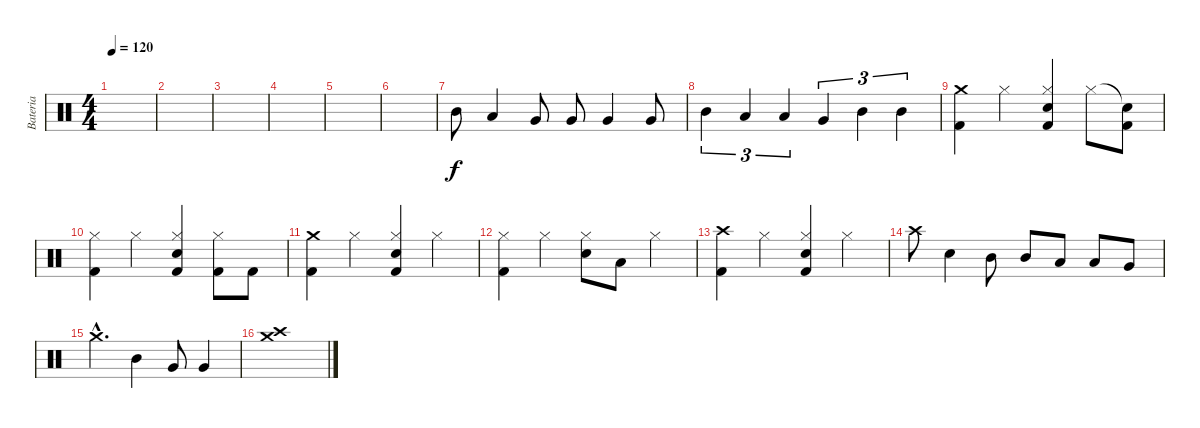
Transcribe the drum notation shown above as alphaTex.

\track ("Bateria" "Bateria") {instrument percussion}
\staff {score}
\articulation defaults
\ts (4 4)
\tempo 120
\clef neutral
\ks c
|
|
|
|
|
|
"Mid Tom (hit)".8{dy f} "Low Tom (hit)".4 "Very Low Tom (hit)".8 "Very Low Tom (hit)".8 "Very Low Tom (hit)".4 "Very Low Tom (hit)".8 |
"Mid Tom (hit)".4{tu (3 2)} "Low Tom (hit)".4{tu (3 2)} "Low Tom (hit)".4{tu (3 2)} "Very Low Tom (hit)".4{tu (3 2)} "Mid Tom (hit)".4{tu (3 2)} "Mid Tom (hit)".4{tu (3 2)} |
("Crash medium (hit)" "Kick (hit) 2").4 "Hi-Hat (closed)".4 ("Hi-Hat (closed)" "Electric Snare (hit)" "Kick (hit) 2").4 "Hi-Hat (closed)".8 ("Snare (hit)"{t} "Kick (hit) 2").8 |
("Hi-Hat (closed)" "Kick (hit) 2").4 "Hi-Hat (closed)".4 ("Hi-Hat (closed)" "Electric Snare (hit)" "Kick (hit) 2").4 ("Hi-Hat (closed)" "Kick (hit) 2").8 "Kick (hit) 2".8 |
("Crash medium (hit)" "Kick (hit) 2").4 "Hi-Hat (closed)".4 ("Hi-Hat (closed)" "Electric Snare (hit)" "Kick (hit) 2").4 "Hi-Hat (closed)".4 |
("Hi-Hat (closed)" "Kick (hit) 2").4 "Hi-Hat (closed)".4 ("Hi-Hat (closed)" "Electric Snare (hit)").8 "Low Tom (hit)".8 "Hi-Hat (closed)".4 |
("Crash high (hit)" "Kick (hit) 2").4 "Hi-Hat (closed)".4 ("Hi-Hat (closed)" "Electric Snare (hit)" "Kick (hit) 2").4 "Hi-Hat (closed)".4 |
"Crash high (hit)".8 "Electric Snare (hit)".4 "Mid Tom (hit)".8 "Mid Tom (hit)".8 "Low Tom (hit)".8 "Low Tom (hit)".8 "Very Low Tom (hit)".8 |
"Crash medium (hit)"{hac}.4{d} "Mid Tom (hit)".4 "Very Low Tom (hit)".8 "Very Low Tom (hit)".4 |
("Crash medium (hit)" "Crash high (hit)").1
